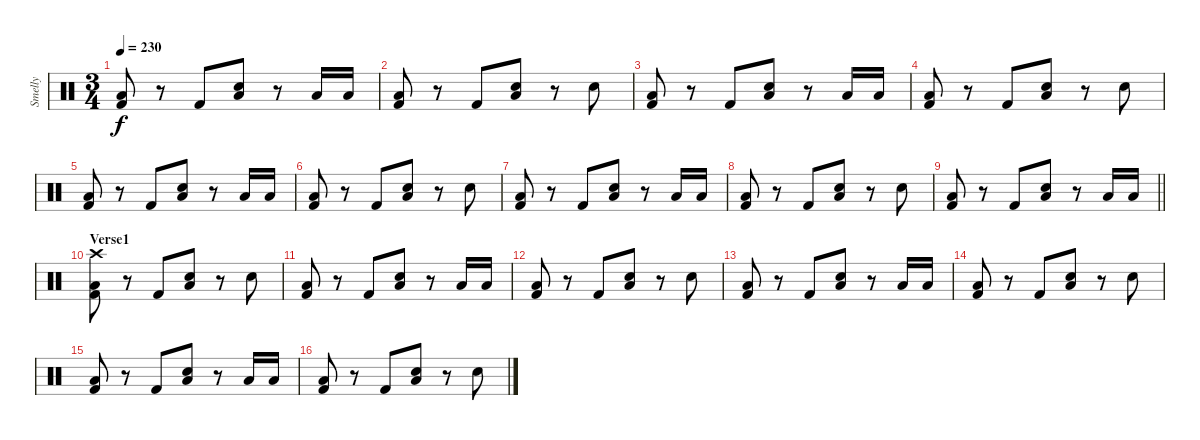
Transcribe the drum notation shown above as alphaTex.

\track ("Smelly" "Smelly") {instrument percussion}
\staff {score}
\articulation defaults
\ts (3 4)
\tempo 230
\clef neutral
\ks c
("Low Floor Tom (hit)" "Kick (hit) 2").8{dy f} r.8 "Kick (hit) 2".8 ("Low Floor Tom (hit)" "Electric Snare (hit)").8 r.8 "Low Floor Tom (hit)".16 "Low Floor Tom (hit)".16 |
("Low Floor Tom (hit)" "Kick (hit) 2").8 r.8 "Kick (hit) 2".8 ("Low Floor Tom (hit)" "Electric Snare (hit)").8 r.8 "Electric Snare (hit)".8 |
("Low Floor Tom (hit)" "Kick (hit) 2").8 r.8 "Kick (hit) 2".8 ("Low Floor Tom (hit)" "Electric Snare (hit)").8 r.8 "Low Floor Tom (hit)".16 "Low Floor Tom (hit)".16 |
("Low Floor Tom (hit)" "Kick (hit) 2").8 r.8 "Kick (hit) 2".8 ("Low Floor Tom (hit)" "Electric Snare (hit)").8 r.8 "Electric Snare (hit)".8 |
("Low Floor Tom (hit)" "Kick (hit) 2").8 r.8 "Kick (hit) 2".8 ("Low Floor Tom (hit)" "Electric Snare (hit)").8 r.8 "Low Floor Tom (hit)".16 "Low Floor Tom (hit)".16 |
("Low Floor Tom (hit)" "Kick (hit) 2").8 r.8 "Kick (hit) 2".8 ("Low Floor Tom (hit)" "Electric Snare (hit)").8 r.8 "Electric Snare (hit)".8 |
("Low Floor Tom (hit)" "Kick (hit) 2").8 r.8 "Kick (hit) 2".8 ("Low Floor Tom (hit)" "Electric Snare (hit)").8 r.8 "Low Floor Tom (hit)".16 "Low Floor Tom (hit)".16 |
("Low Floor Tom (hit)" "Kick (hit) 2").8 r.8 "Kick (hit) 2".8 ("Low Floor Tom (hit)" "Electric Snare (hit)").8 r.8 "Electric Snare (hit)".8 |
\barLineRight lightlight
("Low Floor Tom (hit)" "Kick (hit) 2").8 r.8 "Kick (hit) 2".8 ("Low Floor Tom (hit)" "Electric Snare (hit)").8 r.8 "Low Floor Tom (hit)".16 "Low Floor Tom (hit)".16 |
\section ("" "Verse1")
("Crash high (hit)" "Low Floor Tom (hit)" "Kick (hit) 2").8 r.8 "Kick (hit) 2".8 ("Low Floor Tom (hit)" "Electric Snare (hit)").8 r.8 "Electric Snare (hit)".8 |
("Low Floor Tom (hit)" "Kick (hit) 2").8 r.8 "Kick (hit) 2".8 ("Low Floor Tom (hit)" "Electric Snare (hit)").8 r.8 "Low Floor Tom (hit)".16 "Low Floor Tom (hit)".16 |
("Low Floor Tom (hit)" "Kick (hit) 2").8 r.8 "Kick (hit) 2".8 ("Low Floor Tom (hit)" "Electric Snare (hit)").8 r.8 "Electric Snare (hit)".8 |
("Low Floor Tom (hit)" "Kick (hit) 2").8 r.8 "Kick (hit) 2".8 ("Low Floor Tom (hit)" "Electric Snare (hit)").8 r.8 "Low Floor Tom (hit)".16 "Low Floor Tom (hit)".16 |
("Low Floor Tom (hit)" "Kick (hit) 2").8 r.8 "Kick (hit) 2".8 ("Low Floor Tom (hit)" "Electric Snare (hit)").8 r.8 "Electric Snare (hit)".8 |
("Low Floor Tom (hit)" "Kick (hit) 2").8 r.8 "Kick (hit) 2".8 ("Low Floor Tom (hit)" "Electric Snare (hit)").8 r.8 "Low Floor Tom (hit)".16 "Low Floor Tom (hit)".16 |
("Low Floor Tom (hit)" "Kick (hit) 2").8 r.8 "Kick (hit) 2".8 ("Low Floor Tom (hit)" "Electric Snare (hit)").8 r.8 "Electric Snare (hit)".8
